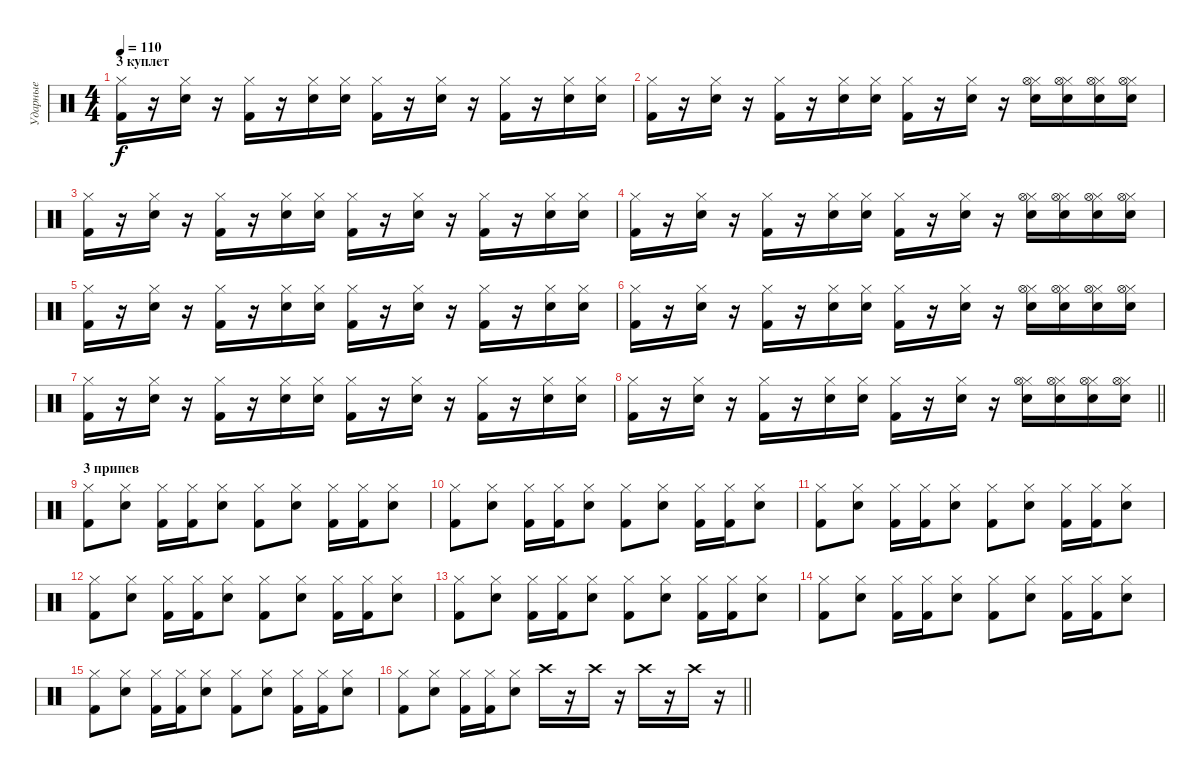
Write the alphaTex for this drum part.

\track ("Ударные" "Ударные") {instrument percussion}
\staff {score}
\articulation defaults
\ts (4 4)
\section ("" "3 куплет")
\tempo 110
\clef neutral
\ks c
("Hi-Hat (closed)" "Kick (hit) 2").16{dy f} r.16 ("Hi-Hat (closed)" "Snare (hit) 2").16 r.16 ("Hi-Hat (closed)" "Kick (hit) 2").16 r.16 ("Snare (hit) 2" "Hi-Hat (closed)").16 ("Snare (hit) 2" "Hi-Hat (closed)").16 ("Hi-Hat (closed)" "Kick (hit) 2").16 r.16 ("Snare (hit) 2" "Hi-Hat (closed)").16 r.16 ("Hi-Hat (closed)" "Kick (hit) 2").16 r.16 ("Snare (hit) 2" "Hi-Hat (closed)").16 ("Snare (hit) 2" "Hi-Hat (closed)").16 |
("Hi-Hat (closed)" "Kick (hit) 2").16 r.16 ("Hi-Hat (closed)" "Snare (hit) 2").16 r.16 ("Hi-Hat (closed)" "Kick (hit) 2").16 r.16 ("Snare (hit) 2" "Hi-Hat (closed)").16 ("Snare (hit) 2" "Hi-Hat (closed)").16 ("Hi-Hat (closed)" "Kick (hit) 2").16 r.16 ("Snare (hit) 2" "Hi-Hat (closed)").16 r.16 ("Snare (hit) 2" "Hi-Hat (closed)" "Hi-Hat (open)").16 ("Snare (hit) 2" "Hi-Hat (closed)" "Hi-Hat (open)").16 ("Snare (hit) 2" "Hi-Hat (closed)" "Hi-Hat (open)").16 ("Snare (hit) 2" "Hi-Hat (closed)" "Hi-Hat (open)").16 |
("Hi-Hat (closed)" "Kick (hit) 2").16 r.16 ("Hi-Hat (closed)" "Snare (hit) 2").16 r.16 ("Hi-Hat (closed)" "Kick (hit) 2").16 r.16 ("Snare (hit) 2" "Hi-Hat (closed)").16 ("Snare (hit) 2" "Hi-Hat (closed)").16 ("Hi-Hat (closed)" "Kick (hit) 2").16 r.16 ("Snare (hit) 2" "Hi-Hat (closed)").16 r.16 ("Hi-Hat (closed)" "Kick (hit) 2").16 r.16 ("Snare (hit) 2" "Hi-Hat (closed)").16 ("Snare (hit) 2" "Hi-Hat (closed)").16 |
("Hi-Hat (closed)" "Kick (hit) 2").16 r.16 ("Hi-Hat (closed)" "Snare (hit) 2").16 r.16 ("Hi-Hat (closed)" "Kick (hit) 2").16 r.16 ("Snare (hit) 2" "Hi-Hat (closed)").16 ("Snare (hit) 2" "Hi-Hat (closed)").16 ("Hi-Hat (closed)" "Kick (hit) 2").16 r.16 ("Snare (hit) 2" "Hi-Hat (closed)").16 r.16 ("Snare (hit) 2" "Hi-Hat (closed)" "Hi-Hat (open)").16 ("Snare (hit) 2" "Hi-Hat (closed)" "Hi-Hat (open)").16 ("Snare (hit) 2" "Hi-Hat (closed)" "Hi-Hat (open)").16 ("Snare (hit) 2" "Hi-Hat (closed)" "Hi-Hat (open)").16 |
("Hi-Hat (closed)" "Kick (hit) 2").16 r.16 ("Hi-Hat (closed)" "Snare (hit) 2").16 r.16 ("Hi-Hat (closed)" "Kick (hit) 2").16 r.16 ("Snare (hit) 2" "Hi-Hat (closed)").16 ("Snare (hit) 2" "Hi-Hat (closed)").16 ("Hi-Hat (closed)" "Kick (hit) 2").16 r.16 ("Snare (hit) 2" "Hi-Hat (closed)").16 r.16 ("Hi-Hat (closed)" "Kick (hit) 2").16 r.16 ("Snare (hit) 2" "Hi-Hat (closed)").16 ("Snare (hit) 2" "Hi-Hat (closed)").16 |
("Hi-Hat (closed)" "Kick (hit) 2").16 r.16 ("Hi-Hat (closed)" "Snare (hit) 2").16 r.16 ("Hi-Hat (closed)" "Kick (hit) 2").16 r.16 ("Snare (hit) 2" "Hi-Hat (closed)").16 ("Snare (hit) 2" "Hi-Hat (closed)").16 ("Hi-Hat (closed)" "Kick (hit) 2").16 r.16 ("Snare (hit) 2" "Hi-Hat (closed)").16 r.16 ("Snare (hit) 2" "Hi-Hat (closed)" "Hi-Hat (open)").16 ("Snare (hit) 2" "Hi-Hat (closed)" "Hi-Hat (open)").16 ("Snare (hit) 2" "Hi-Hat (closed)" "Hi-Hat (open)").16 ("Snare (hit) 2" "Hi-Hat (closed)" "Hi-Hat (open)").16 |
("Hi-Hat (closed)" "Kick (hit) 2").16 r.16 ("Hi-Hat (closed)" "Snare (hit) 2").16 r.16 ("Hi-Hat (closed)" "Kick (hit) 2").16 r.16 ("Snare (hit) 2" "Hi-Hat (closed)").16 ("Snare (hit) 2" "Hi-Hat (closed)").16 ("Hi-Hat (closed)" "Kick (hit) 2").16 r.16 ("Snare (hit) 2" "Hi-Hat (closed)").16 r.16 ("Hi-Hat (closed)" "Kick (hit) 2").16 r.16 ("Snare (hit) 2" "Hi-Hat (closed)").16 ("Snare (hit) 2" "Hi-Hat (closed)").16 |
\barLineRight lightlight
("Hi-Hat (closed)" "Kick (hit) 2").16 r.16 ("Hi-Hat (closed)" "Snare (hit) 2").16 r.16 ("Hi-Hat (closed)" "Kick (hit) 2").16 r.16 ("Snare (hit) 2" "Hi-Hat (closed)").16 ("Snare (hit) 2" "Hi-Hat (closed)").16 ("Hi-Hat (closed)" "Kick (hit) 2").16 r.16 ("Snare (hit) 2" "Hi-Hat (closed)").16 r.16 ("Snare (hit) 2" "Hi-Hat (closed)" "Hi-Hat (open)").16 ("Snare (hit) 2" "Hi-Hat (closed)" "Hi-Hat (open)").16 ("Snare (hit) 2" "Hi-Hat (closed)" "Hi-Hat (open)").16 ("Snare (hit) 2" "Hi-Hat (closed)" "Hi-Hat (open)").16 |
\section ("" "3 припев")
("Hi-Hat (closed)" "Kick (hit) 2").8 ("Snare (hit) 2" "Hi-Hat (closed)").8 ("Hi-Hat (closed)" "Kick (hit) 2").16 ("Hi-Hat (closed)" "Kick (hit) 2").16 ("Snare (hit) 2" "Hi-Hat (closed)").8 ("Hi-Hat (closed)" "Kick (hit) 2").8 ("Snare (hit) 2" "Hi-Hat (closed)").8 ("Hi-Hat (closed)" "Kick (hit) 2").16 ("Hi-Hat (closed)" "Kick (hit) 2").16 ("Snare (hit) 2" "Hi-Hat (closed)").8 |
("Hi-Hat (closed)" "Kick (hit) 2").8 ("Snare (hit) 2" "Hi-Hat (closed)").8 ("Hi-Hat (closed)" "Kick (hit) 2").16 ("Hi-Hat (closed)" "Kick (hit) 2").16 ("Snare (hit) 2" "Hi-Hat (closed)").8 ("Hi-Hat (closed)" "Kick (hit) 2").8 ("Snare (hit) 2" "Hi-Hat (closed)").8 ("Hi-Hat (closed)" "Kick (hit) 2").16 ("Hi-Hat (closed)" "Kick (hit) 2").16 ("Snare (hit) 2" "Hi-Hat (closed)").8 |
("Hi-Hat (closed)" "Kick (hit) 2").8 ("Snare (hit) 2" "Hi-Hat (closed)").8 ("Hi-Hat (closed)" "Kick (hit) 2").16 ("Hi-Hat (closed)" "Kick (hit) 2").16 ("Snare (hit) 2" "Hi-Hat (closed)").8 ("Hi-Hat (closed)" "Kick (hit) 2").8 ("Snare (hit) 2" "Hi-Hat (closed)").8 ("Hi-Hat (closed)" "Kick (hit) 2").16 ("Hi-Hat (closed)" "Kick (hit) 2").16 ("Snare (hit) 2" "Hi-Hat (closed)").8 |
("Hi-Hat (closed)" "Kick (hit) 2").8 ("Snare (hit) 2" "Hi-Hat (closed)").8 ("Hi-Hat (closed)" "Kick (hit) 2").16 ("Hi-Hat (closed)" "Kick (hit) 2").16 ("Snare (hit) 2" "Hi-Hat (closed)").8 ("Hi-Hat (closed)" "Kick (hit) 2").8 ("Snare (hit) 2" "Hi-Hat (closed)").8 ("Hi-Hat (closed)" "Kick (hit) 2").16 ("Hi-Hat (closed)" "Kick (hit) 2").16 ("Snare (hit) 2" "Hi-Hat (closed)").8 |
("Hi-Hat (closed)" "Kick (hit) 2").8 ("Snare (hit) 2" "Hi-Hat (closed)").8 ("Hi-Hat (closed)" "Kick (hit) 2").16 ("Hi-Hat (closed)" "Kick (hit) 2").16 ("Snare (hit) 2" "Hi-Hat (closed)").8 ("Hi-Hat (closed)" "Kick (hit) 2").8 ("Snare (hit) 2" "Hi-Hat (closed)").8 ("Hi-Hat (closed)" "Kick (hit) 2").16 ("Hi-Hat (closed)" "Kick (hit) 2").16 ("Snare (hit) 2" "Hi-Hat (closed)").8 |
("Hi-Hat (closed)" "Kick (hit) 2").8 ("Snare (hit) 2" "Hi-Hat (closed)").8 ("Hi-Hat (closed)" "Kick (hit) 2").16 ("Hi-Hat (closed)" "Kick (hit) 2").16 ("Snare (hit) 2" "Hi-Hat (closed)").8 ("Hi-Hat (closed)" "Kick (hit) 2").8 ("Snare (hit) 2" "Hi-Hat (closed)").8 ("Hi-Hat (closed)" "Kick (hit) 2").16 ("Hi-Hat (closed)" "Kick (hit) 2").16 ("Snare (hit) 2" "Hi-Hat (closed)").8 |
("Hi-Hat (closed)" "Kick (hit) 2").8 ("Snare (hit) 2" "Hi-Hat (closed)").8 ("Hi-Hat (closed)" "Kick (hit) 2").16 ("Hi-Hat (closed)" "Kick (hit) 2").16 ("Snare (hit) 2" "Hi-Hat (closed)").8 ("Hi-Hat (closed)" "Kick (hit) 2").8 ("Snare (hit) 2" "Hi-Hat (closed)").8 ("Hi-Hat (closed)" "Kick (hit) 2").16 ("Hi-Hat (closed)" "Kick (hit) 2").16 ("Snare (hit) 2" "Hi-Hat (closed)").8 |
\barLineRight lightlight
("Hi-Hat (closed)" "Kick (hit) 2").8 ("Snare (hit) 2" "Hi-Hat (closed)").8 ("Hi-Hat (closed)" "Kick (hit) 2").16 ("Hi-Hat (closed)" "Kick (hit) 2").16 ("Snare (hit) 2" "Hi-Hat (closed)").8 "Crash high (hit)".16 r.16 "Crash high (hit)".16 r.16 "Crash high (hit)".16 r.16 "Crash high (hit)".16 r.16
